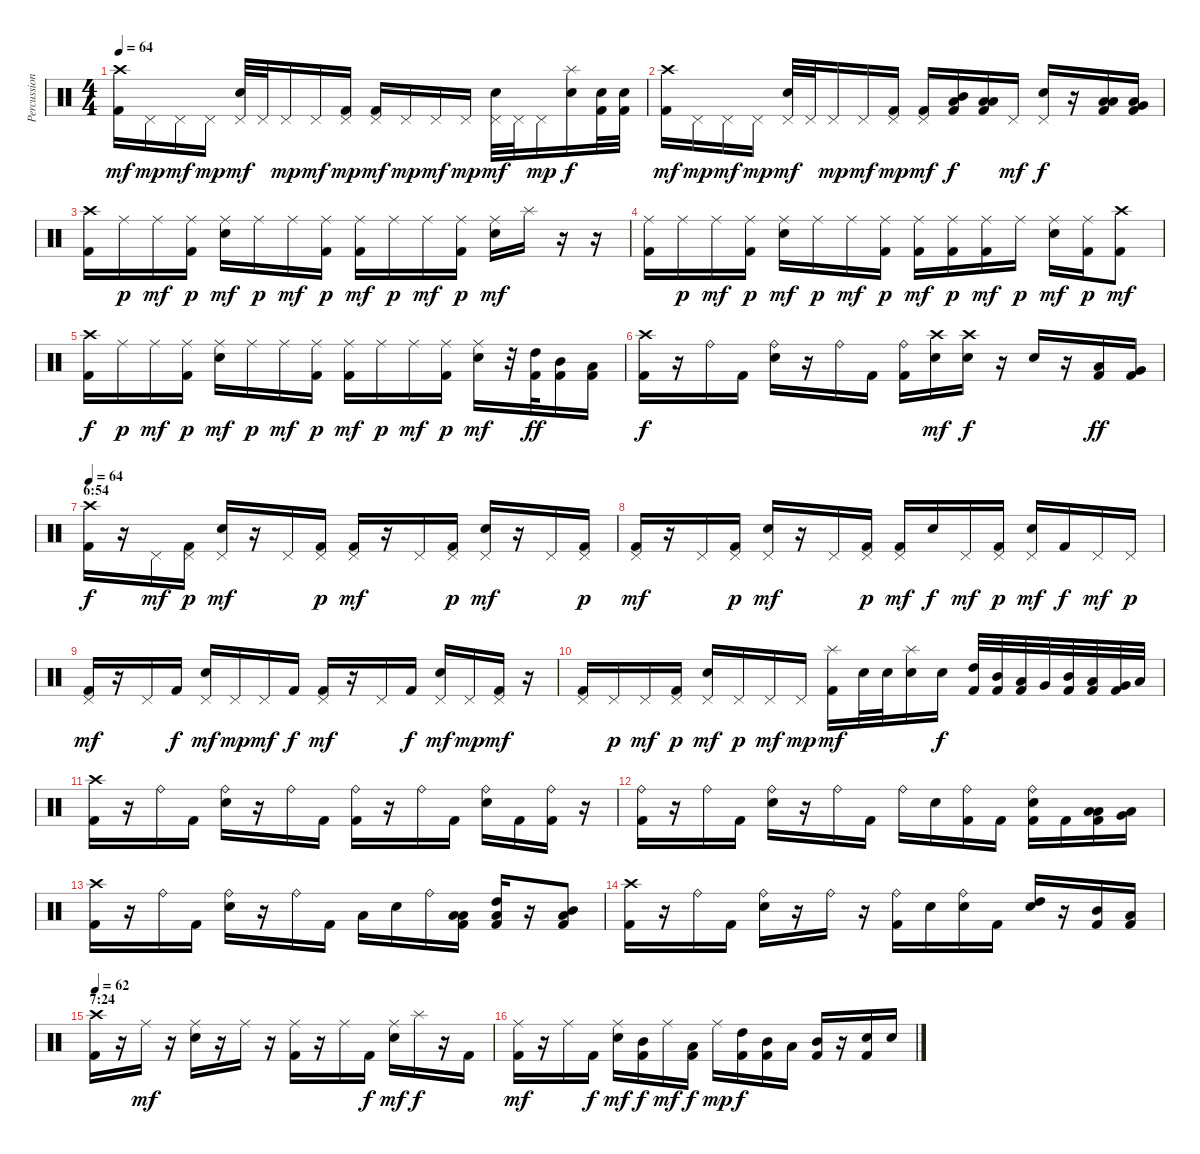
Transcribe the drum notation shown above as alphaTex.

\track ("Percussion" "Percussion") {instrument percussion}
\staff {score}
\articulation defaults
\ts (4 4)
\tempo 64
\clef neutral
\ks c
("Crash high (hit)" "Kick (hit) 2").16{dy mf} "Pedal Hi-Hat (hit)".16{dy mp} "Pedal Hi-Hat (hit)".16{dy mf} "Pedal Hi-Hat (hit)".16{dy mp} ("Pedal Hi-Hat (hit)" "Snare (hit) 2").32{dy mf} "Pedal Hi-Hat (hit)".32 "Pedal Hi-Hat (hit)".16{dy mp} "Pedal Hi-Hat (hit)".16{dy mf} ("Pedal Hi-Hat (hit)" "Kick (hit) 2").16{dy mp} ("Pedal Hi-Hat (hit)" "Kick (hit) 2").16{dy mf} "Pedal Hi-Hat (hit)".16{dy mp} "Pedal Hi-Hat (hit)".16{dy mf} "Pedal Hi-Hat (hit)".16{dy mp} ("Pedal Hi-Hat (hit)" "Snare (hit) 2").32{dy mf} "Pedal Hi-Hat (hit)".32 "Pedal Hi-Hat (hit)".16{dy mp} ("Splash (hit)" "Snare (hit) 2").16{dy f} ("Snare (hit) 2" "Kick (hit) 2").32 ("Snare (hit) 2" "Kick (hit) 2").32 |
("Crash high (hit)" "Kick (hit) 2").16{dy mf} "Pedal Hi-Hat (hit)".16{dy mp} "Pedal Hi-Hat (hit)".16{dy mf} "Pedal Hi-Hat (hit)".16{dy mp} ("Pedal Hi-Hat (hit)" "Snare (hit) 2").32{dy mf} "Pedal Hi-Hat (hit)".32 "Pedal Hi-Hat (hit)".16{dy mp} "Pedal Hi-Hat (hit)".16{dy mf} ("Pedal Hi-Hat (hit)" "Kick (hit) 2").16{dy mp} ("Pedal Hi-Hat (hit)" "Kick (hit) 2").16{dy mf} ("Low Tom (hit)" "Mid Tom (hit)" "Kick (hit) 2").16{dy f} ("Low Tom (hit)" "Low Tom (hit)" "Kick (hit) 2").16 "Pedal Hi-Hat (hit)".16{dy mf} ("Pedal Hi-Hat (hit)" "Snare (hit) 2").16{dy f} r.16 ("Low Tom (hit)" "Low Tom (hit)" "Kick (hit) 2").16 ("Low Tom (hit)" "Very Low Tom (hit)" "Kick (hit) 2").16 |
("Crash high (hit)" "Kick (hit) 2").16 "Ride (middle)".16{dy p} "Ride (middle)".16{dy mf} ("Ride (middle)" "Kick (hit) 2").16{dy p} ("Ride (middle)" "Snare (hit) 2").16{dy mf} "Ride (middle)".16{dy p} "Ride (middle)".16{dy mf} ("Ride (middle)" "Kick (hit) 2").16{dy p} ("Ride (middle)" "Kick (hit) 2").16{dy mf} "Ride (middle)".16{dy p} "Ride (middle)".16{dy mf} ("Ride (middle)" "Kick (hit) 2").16{dy p} ("Ride (middle)" "Snare (hit) 2").16{dy mf} "Splash (hit)".16 r.16 r.16 |
("Ride (middle)" "Kick (hit) 2").16 "Ride (middle)".16{dy p} "Ride (middle)".16{dy mf} ("Ride (middle)" "Kick (hit) 2").16{dy p} ("Ride (middle)" "Snare (hit) 2").16{dy mf} "Ride (middle)".16{dy p} "Ride (middle)".16{dy mf} ("Ride (middle)" "Kick (hit) 2").16{dy p} ("Ride (middle)" "Kick (hit) 2").16{dy mf} ("Ride (middle)" "Kick (hit) 2").16{dy p} ("Ride (middle)" "Kick (hit) 2").16{dy mf} "Ride (middle)".16{dy p} ("Ride (middle)" "Snare (hit) 2").16{dy mf} ("Ride (middle)" "Kick (hit) 2").16{dy p} ("Crash high (hit)" "Kick (hit) 2").8{dy mf} |
("Crash high (hit)" "Kick (hit) 2").16{dy f} "Ride (middle)".16{dy p} "Ride (middle)".16{dy mf} ("Ride (middle)" "Kick (hit) 2").16{dy p} ("Ride (middle)" "Snare (hit) 2").16{dy mf} "Ride (middle)".16{dy p} "Ride (middle)".16{dy mf} ("Ride (middle)" "Kick (hit) 2").16{dy p} ("Ride (middle)" "Kick (hit) 2").16{dy mf} "Ride (middle)".16{dy p} "Ride (middle)".16{dy mf} ("Ride (middle)" "Kick (hit) 2").16{dy p} ("Ride (middle)" "Snare (hit) 2").16{dy mf} r.32 ("High Tom (hit)" "Kick (hit) 2").32{dy ff} ("Mid Tom (hit)" "Kick (hit) 2").16 ("Low Tom (hit)" "Kick (hit) 2").16 |
("Crash high (hit)" "Kick (hit) 2").16{dy f} r.16 "Ride (bell)".16 "Kick (hit) 2".16 ("Ride (bell)" "Snare (hit) 2").16 r.16 "Ride (bell)".16 "Kick (hit) 2".16 ("Ride (bell)" "Kick (hit) 2").16 ("Crash high (hit)" "Snare (hit) 2").16{dy mf} ("Crash high (hit)" "Snare (hit) 2").16{dy f} r.16 "Snare (hit) 2".16 r.16 ("Low Tom (hit)" "Kick (hit) 2").16{dy ff} ("Very Low Tom (hit)" "Kick (hit) 2").16 |
\section ("" "6:54")
\tempo 64
("Crash high (hit)" "Kick (hit) 2").16{dy f} r.16 "Pedal Hi-Hat (hit)".16{dy mf} ("Pedal Hi-Hat (hit)" "Kick (hit) 2").16{dy p} ("Pedal Hi-Hat (hit)" "Snare (hit) 2").16{dy mf} r.16 "Pedal Hi-Hat (hit)".16 ("Pedal Hi-Hat (hit)" "Kick (hit) 2").16{dy p} ("Pedal Hi-Hat (hit)" "Kick (hit) 2").16{dy mf} r.16 "Pedal Hi-Hat (hit)".16 ("Pedal Hi-Hat (hit)" "Kick (hit) 2").16{dy p} ("Pedal Hi-Hat (hit)" "Snare (hit) 2").16{dy mf} r.16 "Pedal Hi-Hat (hit)".16 ("Pedal Hi-Hat (hit)" "Kick (hit) 2").16{dy p} |
("Pedal Hi-Hat (hit)" "Kick (hit) 2").16{dy mf} r.16 "Pedal Hi-Hat (hit)".16 ("Pedal Hi-Hat (hit)" "Kick (hit) 2").16{dy p} ("Pedal Hi-Hat (hit)" "Snare (hit) 2").16{dy mf} r.16 "Pedal Hi-Hat (hit)".16 ("Pedal Hi-Hat (hit)" "Kick (hit) 2").16{dy p} ("Pedal Hi-Hat (hit)" "Kick (hit) 2").16{dy mf} "Snare (hit) 2".16{dy f} "Pedal Hi-Hat (hit)".16{dy mf} ("Pedal Hi-Hat (hit)" "Kick (hit) 2").16{dy p} ("Pedal Hi-Hat (hit)" "Snare (hit) 2").16{dy mf} "Kick (hit) 2".16{dy f} "Pedal Hi-Hat (hit)".16{dy mf} "Pedal Hi-Hat (hit)".16{dy p} |
("Pedal Hi-Hat (hit)" "Kick (hit) 2").16{dy mf} r.16 "Pedal Hi-Hat (hit)".16 "Kick (hit) 2".16{dy f} ("Pedal Hi-Hat (hit)" "Snare (hit) 2").16{dy mf} "Pedal Hi-Hat (hit)".16{dy mp} "Pedal Hi-Hat (hit)".16{dy mf} "Kick (hit) 2".16{dy f} ("Pedal Hi-Hat (hit)" "Kick (hit) 2").16{dy mf} r.16 "Pedal Hi-Hat (hit)".16 "Kick (hit) 2".16{dy f} ("Pedal Hi-Hat (hit)" "Snare (hit) 2").16{dy mf} "Pedal Hi-Hat (hit)".16{dy mp} ("Pedal Hi-Hat (hit)" "Kick (hit) 2").16{dy mf} r.16 |
("Pedal Hi-Hat (hit)" "Kick (hit) 2").16 "Pedal Hi-Hat (hit)".16{dy p} "Pedal Hi-Hat (hit)".16{dy mf} ("Pedal Hi-Hat (hit)" "Kick (hit) 2").16{dy p} ("Pedal Hi-Hat (hit)" "Snare (hit) 2").16{dy mf} "Pedal Hi-Hat (hit)".16{dy p} "Pedal Hi-Hat (hit)".16{dy mf} "Pedal Hi-Hat (hit)".16{dy mp} ("Splash (hit)" "Kick (hit) 2").16{dy mf} "Snare (hit) 2".32 "Snare (hit) 2".32 ("Splash (hit)" "Snare (hit) 2").16 "Snare (hit) 2".16{dy f} ("High Tom (hit)" "Kick (hit) 2").32 ("Mid Tom (hit)" "Kick (hit) 2").32 ("Low Tom (hit)" "Kick (hit) 2").32 "Very Low Tom (hit)".32 ("Mid Tom (hit)" "Kick (hit) 2").32 ("Low Tom (hit)" "Kick (hit) 2").32 ("Very Low Tom (hit)" "Kick (hit) 2").32 "Low Floor Tom (hit)".32 |
("Crash high (hit)" "Kick (hit) 2").16 r.16 "Ride (bell)".16 "Kick (hit) 2".16 ("Ride (bell)" "Snare (hit) 2").16 r.16 "Ride (bell)".16 "Kick (hit) 2".16 ("Ride (bell)" "Kick (hit) 2").16 r.16 "Ride (bell)".16 "Kick (hit) 2".16 ("Ride (bell)" "Snare (hit) 2").16 "Kick (hit) 2".16 ("Ride (bell)" "Kick (hit) 2").16 r.16 |
("Ride (bell)" "Kick (hit) 2").16 r.16 "Ride (bell)".16 "Kick (hit) 2".16 ("Ride (bell)" "Snare (hit) 2").16 r.16 "Ride (bell)".16 "Kick (hit) 2".16 "Ride (bell)".16 "Snare (hit) 2".16 ("Ride (bell)" "Kick (hit) 2").16 "Kick (hit) 2".16 ("Ride (bell)" "Snare (hit) 2" "Kick (hit) 2").16 "Kick (hit) 2".16 ("Low Tom (hit)" "Low Tom (hit)" "Kick (hit) 2").16 ("Low Tom (hit)" "Very Low Tom (hit)").16 |
("Crash high (hit)" "Kick (hit) 2").16 r.16 "Ride (bell)".16 "Kick (hit) 2".16 ("Ride (bell)" "Snare (hit) 2").16 r.16 "Ride (bell)".16 "Kick (hit) 2".16 "Low Tom (hit)".16 "Snare (hit) 2".16 "Ride (bell)".16 ("Low Tom (hit)" "Low Tom (hit)" "Kick (hit) 2").16 ("Low Tom (hit)" "High Tom (hit)" "Kick (hit) 2").16 r.16 ("Low Tom (hit)" "Mid Tom (hit)" "Kick (hit) 2").8 |
("Crash high (hit)" "Kick (hit) 2").16 r.16 "Ride (bell)".16 "Kick (hit) 2".16 ("Ride (bell)" "Snare (hit) 2").16 r.16 "Ride (bell)".16 r.16 ("Ride (bell)" "Kick (hit) 2").16 "Snare (hit) 2".16 ("Ride (bell)" "Snare (hit) 2").16 "Kick (hit) 2".16 ("High Tom (hit)" "Snare (hit) 2").16 r.16 ("Mid Tom (hit)" "Kick (hit) 2").16 ("Low Tom (hit)" "Kick (hit) 2").16 |
\section ("" "7:24")
\tempo 62
("Crash high (hit)" "Kick (hit) 2").16 r.16 "Ride (middle)".16{dy mf} r.16 ("Ride (middle)" "Snare (hit) 2").16 r.16 "Ride (middle)".16 r.16 ("Ride (middle)" "Kick (hit) 2").16 r.16 "Ride (middle)".16 "Kick (hit) 2".16{dy f} ("Ride (middle)" "Snare (hit) 2").16{dy mf} "Splash (hit)".16{dy f} r.16 "Kick (hit) 2".16 |
("Ride (middle)" "Kick (hit) 2").16{dy mf} r.16 "Ride (middle)".16 "Kick (hit) 2".16{dy f} ("Ride (middle)" "Snare (hit) 2").16{dy mf} ("Mid Tom (hit)" "Kick (hit) 2").16{dy f} "Ride (middle)".16{dy mf} ("Low Tom (hit)" "Kick (hit) 2").16{dy f} "Ride (middle)".16{dy mp} ("High Tom (hit)" "Kick (hit) 2").16{dy f} ("Mid Tom (hit)" "Kick (hit) 2").16 "Low Tom (hit)".16 ("Mid Tom (hit)" "Kick (hit) 2").16 r.16 ("Snare (hit) 2" "Kick (hit) 2").16 "Snare (hit) 2".16
